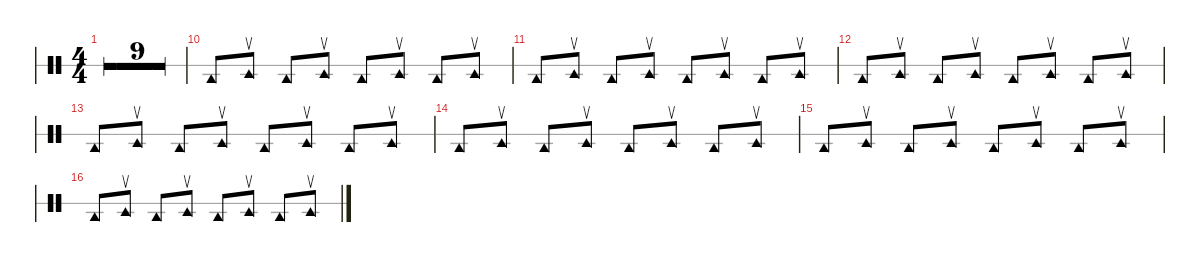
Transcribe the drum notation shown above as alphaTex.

\defaultSystemsLayout 4
\hideDynamics
\bracketExtendMode nobrackets
\singleTrackTrackNamePolicy hidden
\multiTrackTrackNamePolicy hidden
\otherSystemsTrackNameOrientation horizontal
\track ("Tambourine" "tamb.") {multiBarRest instrument percussion}
\staff {score 1}
\articulation defaults
\ts (4 4)
\tempo 208
\clef neutral
\ks c
r.1{dy mf beam Down} |
r.1{beam Down} |
r.1{beam Down} |
r.1{beam Down} |
r.1{beam Down} |
r.1{beam Down} |
r.1{beam Down} |
r.1{beam Down} |
r.1{beam Down} |
"Tambourine (hit)".8{beam Up} "Tambourine (return)".8{beam Up} "Tambourine (hit)".8{beam Up} "Tambourine (return)".8{beam Up} "Tambourine (hit)".8{beam Up} "Tambourine (return)".8{beam Up} "Tambourine (hit)".8{beam Up} "Tambourine (return)".8{beam Up} |
"Tambourine (hit)".8{beam Up} "Tambourine (return)".8{beam Up} "Tambourine (hit)".8{beam Up} "Tambourine (return)".8{beam Up} "Tambourine (hit)".8{beam Up} "Tambourine (return)".8{beam Up} "Tambourine (hit)".8{beam Up} "Tambourine (return)".8{beam Up} |
"Tambourine (hit)".8{beam Up} "Tambourine (return)".8{beam Up} "Tambourine (hit)".8{beam Up} "Tambourine (return)".8{beam Up} "Tambourine (hit)".8{beam Up} "Tambourine (return)".8{beam Up} "Tambourine (hit)".8{beam Up} "Tambourine (return)".8{beam Up} |
"Tambourine (hit)".8{beam Up} "Tambourine (return)".8{beam Up} "Tambourine (hit)".8{beam Up} "Tambourine (return)".8{beam Up} "Tambourine (hit)".8{beam Up} "Tambourine (return)".8{beam Up} "Tambourine (hit)".8{beam Up} "Tambourine (return)".8{beam Up} |
"Tambourine (hit)".8{beam Up} "Tambourine (return)".8{beam Up} "Tambourine (hit)".8{beam Up} "Tambourine (return)".8{beam Up} "Tambourine (hit)".8{beam Up} "Tambourine (return)".8{beam Up} "Tambourine (hit)".8{beam Up} "Tambourine (return)".8{beam Up} |
"Tambourine (hit)".8{beam Up} "Tambourine (return)".8{beam Up} "Tambourine (hit)".8{beam Up} "Tambourine (return)".8{beam Up} "Tambourine (hit)".8{beam Up} "Tambourine (return)".8{beam Up} "Tambourine (hit)".8{beam Up} "Tambourine (return)".8{beam Up} |
"Tambourine (hit)".8{beam Up} "Tambourine (return)".8{beam Up} "Tambourine (hit)".8{beam Up} "Tambourine (return)".8{beam Up} "Tambourine (hit)".8{beam Up} "Tambourine (return)".8{beam Up} "Tambourine (hit)".8{beam Up} "Tambourine (return)".8{beam Up}
